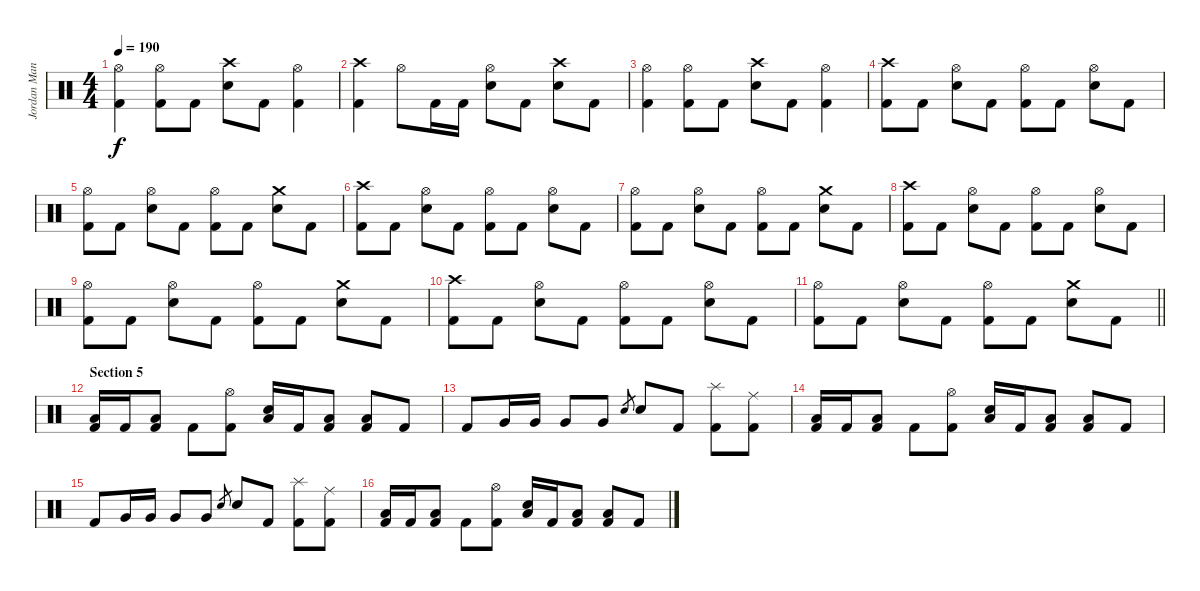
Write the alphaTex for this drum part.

\track ("Jordan Mancino" "Jordan Man") {instrument percussion}
\staff {score}
\articulation defaults
\ts (4 4)
\tempo 190
\clef neutral
\ks c
("Hi-Hat (open)" "Kick (hit) 2").4{dy f} ("Hi-Hat (open)" "Kick (hit) 2").8 "Kick (hit) 2".8 ("Crash high (hit)" "Electric Snare (hit)").8 "Kick (hit) 2".8 ("Hi-Hat (open)" "Kick (hit) 2").4 |
("Crash high (hit)" "Kick (hit) 2").4 "Hi-Hat (open)".8 "Kick (hit) 2".16 "Kick (hit) 2".16 ("Hi-Hat (open)" "Electric Snare (hit)").8 "Kick (hit) 2".8 ("Crash high (hit)" "Electric Snare (hit)").8 "Kick (hit) 2".8 |
("Hi-Hat (open)" "Kick (hit) 2").4 ("Hi-Hat (open)" "Kick (hit) 2").8 "Kick (hit) 2".8 ("Crash high (hit)" "Electric Snare (hit)").8 "Kick (hit) 2".8 ("Hi-Hat (open)" "Kick (hit) 2").4 |
("Crash high (hit)" "Kick (hit) 2").8 "Kick (hit) 2".8 ("Hi-Hat (open)" "Electric Snare (hit)").8 "Kick (hit) 2".8 ("Hi-Hat (open)" "Kick (hit) 2").8 "Kick (hit) 2".8 ("Hi-Hat (open)" "Electric Snare (hit)").8 "Kick (hit) 2".8 |
("Hi-Hat (open)" "Kick (hit) 2").8 "Kick (hit) 2".8 ("Hi-Hat (open)" "Electric Snare (hit)").8 "Kick (hit) 2".8 ("Hi-Hat (open)" "Kick (hit) 2").8 "Kick (hit) 2".8 ("Crash medium (hit)" "Electric Snare (hit)").8 "Kick (hit) 2".8 |
("Crash high (hit)" "Kick (hit) 2").8 "Kick (hit) 2".8 ("Hi-Hat (open)" "Electric Snare (hit)").8 "Kick (hit) 2".8 ("Hi-Hat (open)" "Kick (hit) 2").8 "Kick (hit) 2".8 ("Hi-Hat (open)" "Electric Snare (hit)").8 "Kick (hit) 2".8 |
("Hi-Hat (open)" "Kick (hit) 2").8 "Kick (hit) 2".8 ("Hi-Hat (open)" "Electric Snare (hit)").8 "Kick (hit) 2".8 ("Hi-Hat (open)" "Kick (hit) 2").8 "Kick (hit) 2".8 ("Crash medium (hit)" "Electric Snare (hit)").8 "Kick (hit) 2".8 |
("Crash high (hit)" "Kick (hit) 2").8 "Kick (hit) 2".8 ("Hi-Hat (open)" "Electric Snare (hit)").8 "Kick (hit) 2".8 ("Hi-Hat (open)" "Kick (hit) 2").8 "Kick (hit) 2".8 ("Hi-Hat (open)" "Electric Snare (hit)").8 "Kick (hit) 2".8 |
("Hi-Hat (open)" "Kick (hit) 2").8 "Kick (hit) 2".8 ("Hi-Hat (open)" "Electric Snare (hit)").8 "Kick (hit) 2".8 ("Hi-Hat (open)" "Kick (hit) 2").8 "Kick (hit) 2".8 ("Crash medium (hit)" "Electric Snare (hit)").8 "Kick (hit) 2".8 |
("Crash high (hit)" "Kick (hit) 2").8 "Kick (hit) 2".8 ("Hi-Hat (open)" "Electric Snare (hit)").8 "Kick (hit) 2".8 ("Hi-Hat (open)" "Kick (hit) 2").8 "Kick (hit) 2".8 ("Hi-Hat (open)" "Electric Snare (hit)").8 "Kick (hit) 2".8 |
\barLineRight lightlight
("Hi-Hat (open)" "Kick (hit) 2").8 "Kick (hit) 2".8 ("Hi-Hat (open)" "Electric Snare (hit)").8 "Kick (hit) 2".8 ("Hi-Hat (open)" "Kick (hit) 2").8 "Kick (hit) 2".8 ("Crash medium (hit)" "Electric Snare (hit)").8 "Kick (hit) 2".8 |
\section ("" "Section 5")
("Low Tom (hit)" "Kick (hit) 2").16 "Kick (hit) 2".16 ("Low Tom (hit)" "Kick (hit) 2").8 "Kick (hit) 2".8 ("Hi-Hat (open)" "Kick (hit) 2").8 ("Low Floor Tom (hit)" "Electric Snare (hit)").16 "Kick (hit) 2".16 ("Low Floor Tom (hit)" "Kick (hit) 2").8 ("Low Floor Tom (hit)" "Kick (hit) 2").8 "Kick (hit) 2".8 |
"Kick (hit) 2".8 "Very Low Tom (hit)".16 "Very Low Tom (hit)".16 "Very Low Tom (hit)".8 "Very Low Tom (hit)".8 "Electric Snare (hit)".8{gr} "Electric Snare (hit)".8 "Kick (hit) 2".8 ("Splash (hit)" "Kick (hit) 2").8 ("Ride (middle)" "Kick (hit) 2").8 |
("Low Tom (hit)" "Kick (hit) 2").16 "Kick (hit) 2".16 ("Low Tom (hit)" "Kick (hit) 2").8 "Kick (hit) 2".8 ("Hi-Hat (open)" "Kick (hit) 2").8 ("Low Floor Tom (hit)" "Electric Snare (hit)").16 "Kick (hit) 2".16 ("Low Floor Tom (hit)" "Kick (hit) 2").8 ("Low Floor Tom (hit)" "Kick (hit) 2").8 "Kick (hit) 2".8 |
"Kick (hit) 2".8 "Very Low Tom (hit)".16 "Very Low Tom (hit)".16 "Very Low Tom (hit)".8 "Very Low Tom (hit)".8 "Electric Snare (hit)".8{gr} "Electric Snare (hit)".8 "Kick (hit) 2".8 ("Splash (hit)" "Kick (hit) 2").8 ("Ride (middle)" "Kick (hit) 2").8 |
("Low Tom (hit)" "Kick (hit) 2").16 "Kick (hit) 2".16 ("Low Tom (hit)" "Kick (hit) 2").8 "Kick (hit) 2".8 ("Hi-Hat (open)" "Kick (hit) 2").8 ("Low Floor Tom (hit)" "Electric Snare (hit)").16 "Kick (hit) 2".16 ("Low Floor Tom (hit)" "Kick (hit) 2").8 ("Low Floor Tom (hit)" "Kick (hit) 2").8 "Kick (hit) 2".8
